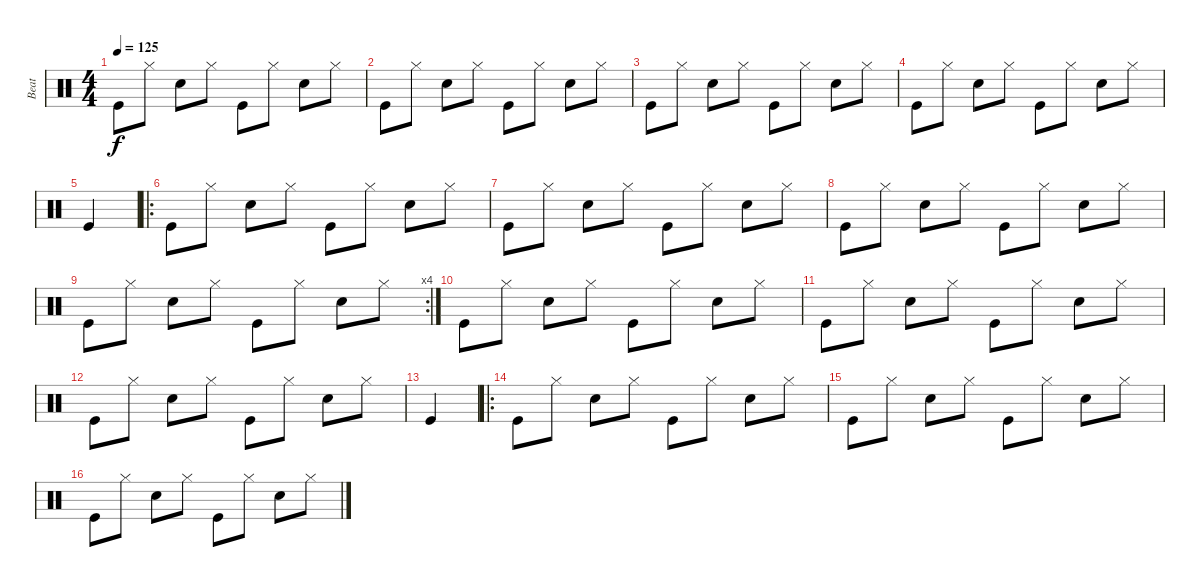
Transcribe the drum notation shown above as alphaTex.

\track ("Beat" "Beat") {instrument percussion}
\staff {score}
\articulation defaults
\ts (4 4)
\tempo 125
\clef neutral
\ks c "Kick (hit)".8{dy f} "Hi-Hat (closed)".8 "Hand Clap (hit)".8 "Hi-Hat (closed)".8 "Kick (hit)".8 "Hi-Hat (closed)".8 "Hand Clap (hit)".8 "Hi-Hat (closed)".8
|
"Kick (hit)".8 "Hi-Hat (closed)".8 "Hand Clap (hit)".8 "Hi-Hat (closed)".8 "Kick (hit)".8 "Hi-Hat (closed)".8 "Hand Clap (hit)".8 "Hi-Hat (closed)".8 |
"Kick (hit)".8 "Hi-Hat (closed)".8 "Hand Clap (hit)".8 "Hi-Hat (closed)".8 "Kick (hit)".8 "Hi-Hat (closed)".8 "Hand Clap (hit)".8 "Hi-Hat (closed)".8 |
"Kick (hit)".8 "Hi-Hat (closed)".8 "Hand Clap (hit)".8 "Hi-Hat (closed)".8 "Kick (hit)".8 "Hi-Hat (closed)".8 "Hand Clap (hit)".8 "Hi-Hat (closed)".8 |
"Kick (hit)".4 |
\ro "Kick (hit)".8 "Hi-Hat (closed)".8 "Hand Clap (hit)".8 "Hi-Hat (closed)".8 "Kick (hit)".8 "Hi-Hat (closed)".8 "Hand Clap (hit)".8 "Hi-Hat (closed)".8
|
"Kick (hit)".8 "Hi-Hat (closed)".8 "Hand Clap (hit)".8 "Hi-Hat (closed)".8 "Kick (hit)".8 "Hi-Hat (closed)".8 "Hand Clap (hit)".8 "Hi-Hat (closed)".8 |
"Kick (hit)".8 "Hi-Hat (closed)".8 "Hand Clap (hit)".8 "Hi-Hat (closed)".8 "Kick (hit)".8 "Hi-Hat (closed)".8 "Hand Clap (hit)".8 "Hi-Hat (closed)".8 |
\rc 4 "Kick (hit)".8 "Hi-Hat (closed)".8 "Hand Clap (hit)".8 "Hi-Hat (closed)".8 "Kick (hit)".8 "Hi-Hat (closed)".8 "Hand Clap (hit)".8 "Hi-Hat (closed)".8
|
"Kick (hit)".8 "Hi-Hat (closed)".8 "Hand Clap (hit)".8 "Hi-Hat (closed)".8 "Kick (hit)".8 "Hi-Hat (closed)".8 "Hand Clap (hit)".8 "Hi-Hat (closed)".8 |
"Kick (hit)".8 "Hi-Hat (closed)".8 "Hand Clap (hit)".8 "Hi-Hat (closed)".8 "Kick (hit)".8 "Hi-Hat (closed)".8 "Hand Clap (hit)".8 "Hi-Hat (closed)".8 |
"Kick (hit)".8 "Hi-Hat (closed)".8 "Hand Clap (hit)".8 "Hi-Hat (closed)".8 "Kick (hit)".8 "Hi-Hat (closed)".8 "Hand Clap (hit)".8 "Hi-Hat (closed)".8 |
"Kick (hit)".4 |
\ro "Kick (hit)".8 "Hi-Hat (closed)".8 "Hand Clap (hit)".8 "Hi-Hat (closed)".8 "Kick (hit)".8 "Hi-Hat (closed)".8 "Hand Clap (hit)".8 "Hi-Hat (closed)".8
|
"Kick (hit)".8 "Hi-Hat (closed)".8 "Hand Clap (hit)".8 "Hi-Hat (closed)".8 "Kick (hit)".8 "Hi-Hat (closed)".8 "Hand Clap (hit)".8 "Hi-Hat (closed)".8 |
"Kick (hit)".8 "Hi-Hat (closed)".8 "Hand Clap (hit)".8 "Hi-Hat (closed)".8 "Kick (hit)".8 "Hi-Hat (closed)".8 "Hand Clap (hit)".8 "Hi-Hat (closed)".8
